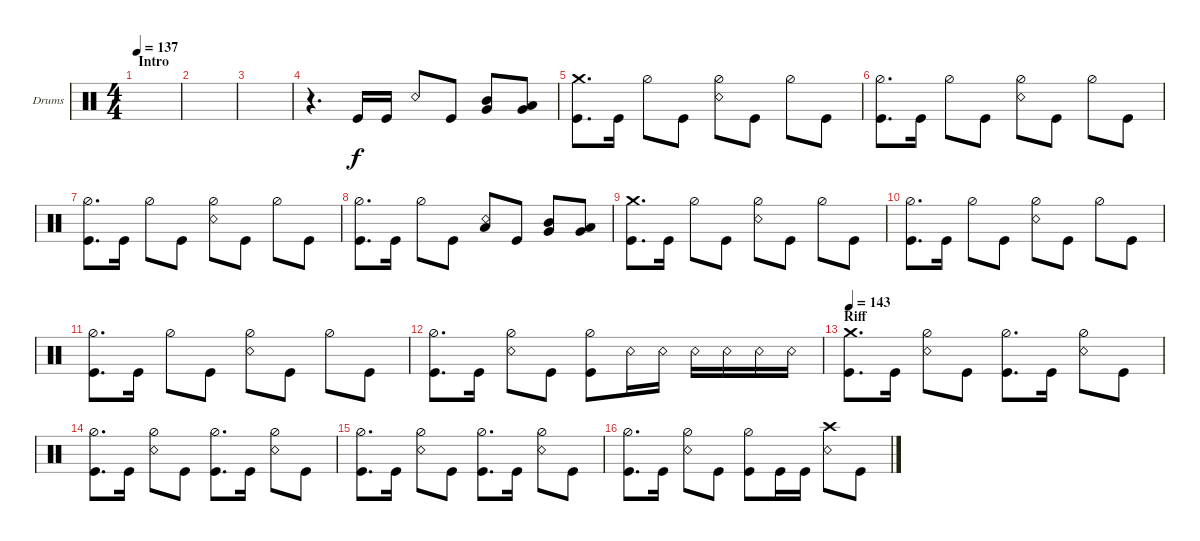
\defaultSystemsLayout 4
\bracketExtendMode groupsimilarinstruments
\firstSystemTrackNameOrientation horizontal
\otherSystemsTrackNameOrientation horizontal
\track ("Nao - Drums" "Drums") {instrument percussion}
\staff {score}
\articulation defaults
\ts (4 4)
\section ("" "Intro")
\tempo 137
\clef neutral
\ks c
|
|
|
r.4{d} "Kick (hit)".16 "Kick (hit)".16 "Snare (rim shot)".8 "Kick (hit)".8 ("Mid Tom (hit)" "Very Low Tom (hit)").8 ("Low Tom (hit)" "Very Low Tom (hit)").8 |
("Crash medium (hit)" "Kick (hit)").8{d} "Kick (hit)".16 "Hi-Hat (half)".8 "Kick (hit)".8 ("Snare (rim shot)" "Hi-Hat (half)").8 "Kick (hit)".8 "Hi-Hat (half)".8 "Kick (hit)".8 |
("Kick (hit)" "Hi-Hat (half)").8{d} "Kick (hit)".16 "Hi-Hat (half)".8 "Kick (hit)".8 ("Snare (rim shot)" "Hi-Hat (half)").8 "Kick (hit)".8 "Hi-Hat (half)".8 "Kick (hit)".8 |
("Kick (hit)" "Hi-Hat (half)").8{d} "Kick (hit)".16 "Hi-Hat (half)".8 "Kick (hit)".8 ("Snare (rim shot)" "Hi-Hat (half)").8 "Kick (hit)".8 "Hi-Hat (half)".8 "Kick (hit)".8 |
("Kick (hit)" "Hi-Hat (half)").8{d} "Kick (hit)".16 "Hi-Hat (half)".8 "Kick (hit)".8 ("Snare (rim shot)" "Low Tom (hit)").8 "Kick (hit)".8 ("Very Low Tom (hit)" "Mid Tom (hit)").8 ("Very Low Tom (hit)" "Low Tom (hit)").8 |
("Crash medium (hit)" "Kick (hit)").8{d} "Kick (hit)".16 "Hi-Hat (half)".8 "Kick (hit)".8 ("Snare (rim shot)" "Hi-Hat (half)").8 "Kick (hit)".8 "Hi-Hat (half)".8 "Kick (hit)".8 |
("Kick (hit)" "Hi-Hat (half)").8{d} "Kick (hit)".16 "Hi-Hat (half)".8 "Kick (hit)".8 ("Snare (rim shot)" "Hi-Hat (half)").8 "Kick (hit)".8 "Hi-Hat (half)".8 "Kick (hit)".8 |
("Kick (hit)" "Hi-Hat (half)").8{d} "Kick (hit)".16 "Hi-Hat (half)".8 "Kick (hit)".8 ("Snare (rim shot)" "Hi-Hat (half)").8 "Kick (hit)".8 "Hi-Hat (half)".8 "Kick (hit)".8 |
("Kick (hit)" "Hi-Hat (half)").8{d} "Kick (hit)".16 ("Hi-Hat (half)" "Snare (rim shot)").8 "Kick (hit)".8 ("Hi-Hat (half)" "Kick (hit)").8 "Snare (rim shot)".16 "Snare (rim shot)".16 "Snare (rim shot)".16 "Snare (rim shot)".16 "Snare (rim shot)".16 "Snare (rim shot)".16 |
\section ("" "Riff")
\tempo 143
("Kick (hit)" "Crash medium (hit)").8{d} "Kick (hit)".16 ("Hi-Hat (half)" "Snare (rim shot)").8 "Kick (hit)".8 ("Kick (hit)" "Hi-Hat (half)").8{d} "Kick (hit)".16 ("Hi-Hat (half)" "Snare (rim shot)").8 "Kick (hit)".8 |
("Kick (hit)" "Hi-Hat (half)").8{d} "Kick (hit)".16 ("Hi-Hat (half)" "Snare (rim shot)").8 "Kick (hit)".8 ("Kick (hit)" "Hi-Hat (half)").8{d} "Kick (hit)".16 ("Hi-Hat (half)" "Snare (rim shot)").8 "Kick (hit)".8 |
("Kick (hit)" "Hi-Hat (half)").8{d} "Kick (hit)".16 ("Hi-Hat (half)" "Snare (rim shot)").8 "Kick (hit)".8 ("Kick (hit)" "Hi-Hat (half)").8{d} "Kick (hit)".16 ("Hi-Hat (half)" "Snare (rim shot)").8 "Kick (hit)".8 |
("Kick (hit)" "Hi-Hat (half)").8{d} "Kick (hit)".16 ("Hi-Hat (half)" "Snare (rim shot)").8 "Kick (hit)".8 ("Kick (hit)" "Hi-Hat (half)").8 "Kick (hit)".16 "Kick (hit)".16 ("Snare (rim shot)" "Crash high (hit)").8 "Kick (hit)".8
